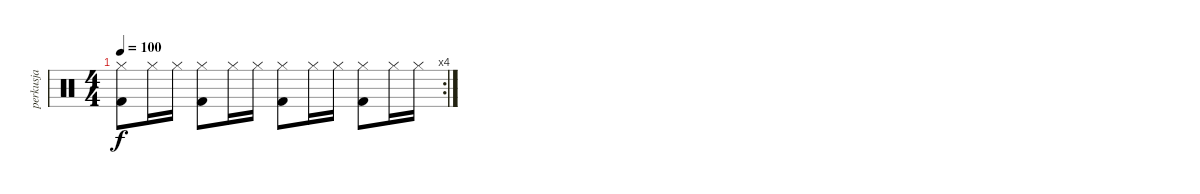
\track ("perkusja" "perkusja") {instrument percussion}
\staff {score}
\articulation defaults
\rc 4
\ts (4 4)
\tempo 100
\clef neutral
\ks c
("Hi-Hat (closed)" "Kick (hit) 2").8{dy f} "Hi-Hat (closed)".16 "Hi-Hat (closed)".16 ("Hi-Hat (closed)" "Kick (hit) 2").8 "Hi-Hat (closed)".16 "Hi-Hat (closed)".16 ("Hi-Hat (closed)" "Kick (hit) 2").8 "Hi-Hat (closed)".16 "Hi-Hat (closed)".16 ("Hi-Hat (closed)" "Kick (hit) 2").8 "Hi-Hat (closed)".16 "Hi-Hat (closed)".16
